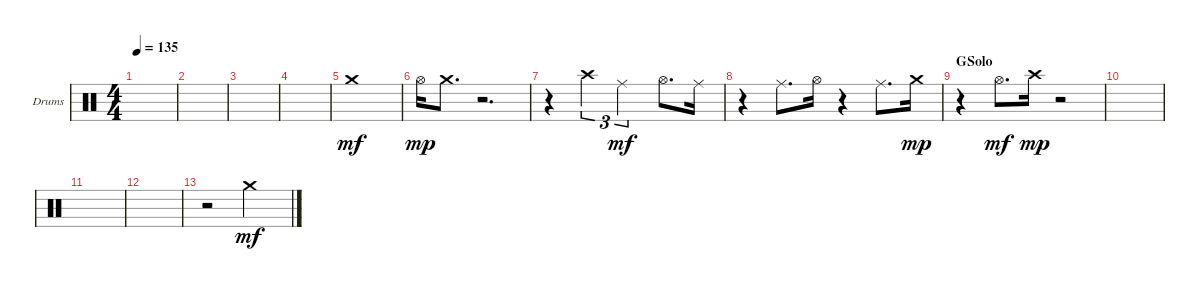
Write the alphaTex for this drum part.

\bracketExtendMode groupsimilarinstruments
\firstSystemTrackNameOrientation horizontal
\otherSystemsTrackNameOrientation horizontal
\track ("OH" "Drums") {instrument percussion}
\staff {score}
\articulation defaults
\ts (4 4)
\tempo 135
\clef neutral
\ks c
|
|
|
|
"Crash medium (hit)".1{dy mf} |
"Hi-Hat (open)".16{dy mp} "Crash medium (hit)".8{d} r.2{d} |
r.4 "Crash high (hit)".4{tu (3 2)} "Ride (middle)".2{tu (3 2) dy mf} "Hi-Hat (open)".8{d} "Ride (middle)".16 |
r.4 "Ride (middle)".8{d} "Hi-Hat (open)".16 r.4 "Ride (middle)".8{d} "Crash medium (hit)".16{dy mp} |
\section ("" "GSolo")
r.4 "Hi-Hat (open)".8{d dy mf} "Crash high (hit)".16{dy mp} r.2 |
|
\scale
0.333333 |
|
r.2 "Crash medium (hit)".2{dy mf}
